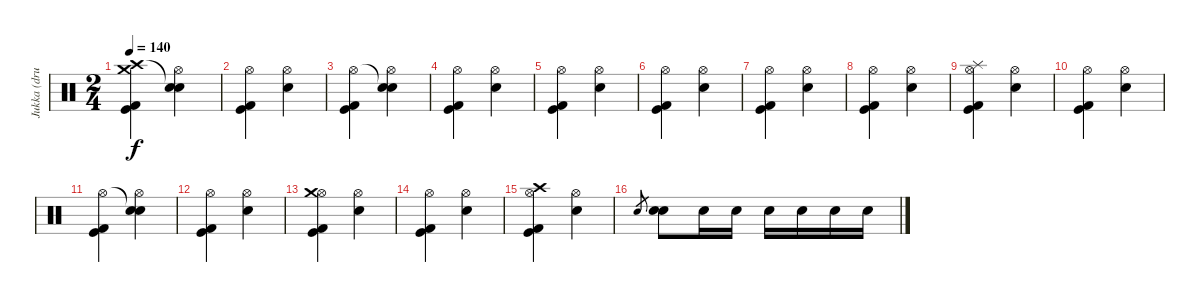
\track ("Jukka (drums)" "Jukka (dru") {instrument percussion}
\staff {score}
\articulation defaults
\ts (2 4)
\tempo 140
\clef neutral
\ks c
("Kick (hit)" "Kick (hit) 2" "Crash high (hit)" "Crash medium (hit)").4{dy f} ("Electric Snare (hit)" "Hi-Hat (open)" "Snare (hit)"{t}).4 |
("Kick (hit)" "Kick (hit) 2" "Hi-Hat (open)").4 ("Electric Snare (hit)" "Hi-Hat (open)").4 |
("Kick (hit)" "Kick (hit) 2" "Hi-Hat (open)").4 ("Electric Snare (hit)" "Hi-Hat (open)" "Snare (hit)"{t}).4 |
("Kick (hit)" "Kick (hit) 2" "Hi-Hat (open)").4 ("Electric Snare (hit)" "Hi-Hat (open)").4 |
("Kick (hit)" "Kick (hit) 2" "Hi-Hat (open)").4 ("Electric Snare (hit)" "Hi-Hat (open)").4 |
("Kick (hit)" "Kick (hit) 2" "Hi-Hat (open)").4 ("Electric Snare (hit)" "Hi-Hat (open)").4 |
("Kick (hit)" "Kick (hit) 2" "Hi-Hat (open)").4 ("Electric Snare (hit)" "Hi-Hat (open)").4 |
("Kick (hit)" "Kick (hit) 2" "Hi-Hat (open)").4 ("Electric Snare (hit)" "Hi-Hat (open)").4 |
("Kick (hit)" "Kick (hit) 2" "Hi-Hat (open)" "Splash (hit)").4 ("Electric Snare (hit)" "Hi-Hat (open)").4 |
("Kick (hit)" "Kick (hit) 2" "Hi-Hat (open)").4 ("Electric Snare (hit)" "Hi-Hat (open)").4 |
("Kick (hit)" "Kick (hit) 2" "Hi-Hat (open)").4 ("Electric Snare (hit)" "Hi-Hat (open)" "Snare (hit)"{t}).4 |
("Kick (hit)" "Kick (hit) 2" "Hi-Hat (open)").4 ("Electric Snare (hit)" "Hi-Hat (open)").4 |
("Kick (hit)" "Kick (hit) 2" "Hi-Hat (open)" "Crash medium (hit)").4 ("Electric Snare (hit)" "Hi-Hat (open)").4 |
("Kick (hit)" "Kick (hit) 2" "Hi-Hat (open)").4 ("Electric Snare (hit)" "Hi-Hat (open)").4 |
("Kick (hit)" "Kick (hit) 2" "Hi-Hat (open)" "Crash high (hit)").4 ("Electric Snare (hit)" "Hi-Hat (open)").4 |
"Electric Snare (hit)".8{gr} ("Electric Snare (hit)" "Electric Snare (hit)").8 "Electric Snare (hit)".16 "Electric Snare (hit)".16 "Electric Snare (hit)".16 "Electric Snare (hit)".16 "Electric Snare (hit)".16 "Electric Snare (hit)".16
